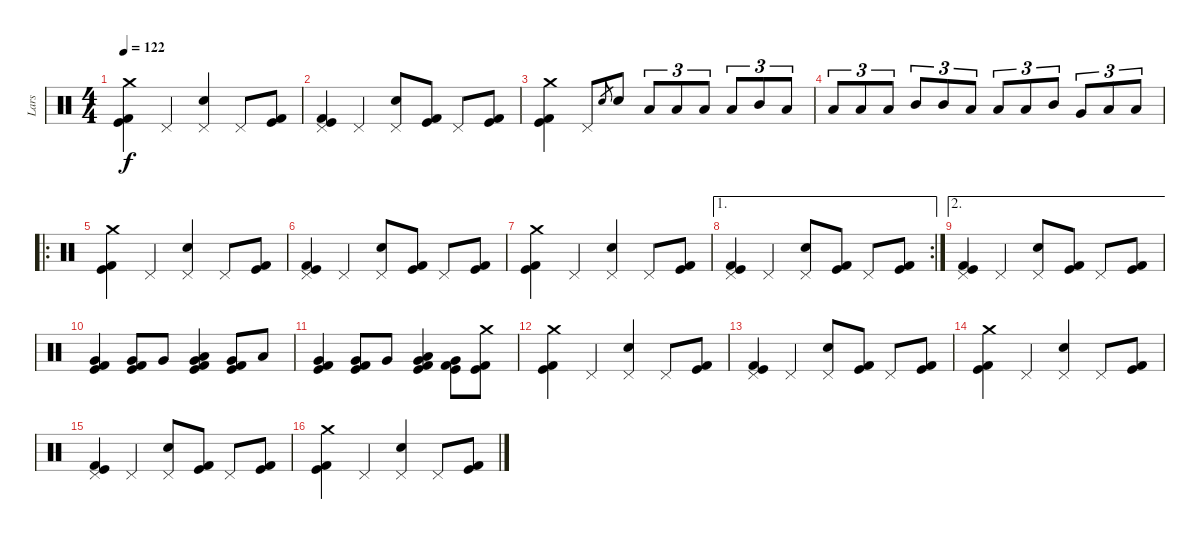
\track ("Lars" "Lars") {instrument percussion}
\staff {score}
\articulation defaults
\ts (4 4)
\tempo 122
\clef neutral
\ks aminor
("Crash medium (hit)" "Kick (hit)" "Kick (hit) 2").4{dy f} "Pedal Hi-Hat (hit)".4 ("Pedal Hi-Hat (hit)" "Electric Snare (hit)").4 "Pedal Hi-Hat (hit)".8 ("Kick (hit)" "Kick (hit) 2").8 |
("Pedal Hi-Hat (hit)" "Kick (hit)" "Kick (hit) 2").4 "Pedal Hi-Hat (hit)".4 ("Pedal Hi-Hat (hit)" "Electric Snare (hit)").8 ("Kick (hit)" "Kick (hit) 2").8 "Pedal Hi-Hat (hit)".8 ("Kick (hit)" "Kick (hit) 2").8 |
("Crash medium (hit)" "Kick (hit)" "Kick (hit) 2").4 "Pedal Hi-Hat (hit)".8 "Electric Snare (hit)".8{gr} "Electric Snare (hit)".8 "Low Tom (hit)".8{tu (3 2)} "Low Tom (hit)".8{tu (3 2)} "Low Tom (hit)".8{tu (3 2)} "Low Tom (hit)".8{tu (3 2)} "Mid Tom (hit)".8{tu (3 2)} "Low Tom (hit)".8{tu (3 2)} |
"Low Tom (hit)".8{tu (3 2)} "Low Tom (hit)".8{tu (3 2)} "Low Tom (hit)".8{tu (3 2)} "Mid Tom (hit)".8{tu (3 2)} "Mid Tom (hit)".8{tu (3 2)} "Low Tom (hit)".8{tu (3 2)} "Low Tom (hit)".8{tu (3 2)} "Low Tom (hit)".8{tu (3 2)} "Mid Tom (hit)".8{tu (3 2)} "Very Low Tom (hit)".8{tu (3 2)} "Low Tom (hit)".8{tu (3 2)} "Low Tom (hit)".8{tu (3 2)} |
\ro
("Crash medium (hit)" "Kick (hit)" "Kick (hit) 2").4 "Pedal Hi-Hat (hit)".4 ("Pedal Hi-Hat (hit)" "Electric Snare (hit)").4 "Pedal Hi-Hat (hit)".8 ("Kick (hit)" "Kick (hit) 2").8 |
("Pedal Hi-Hat (hit)" "Kick (hit)" "Kick (hit) 2").4 "Pedal Hi-Hat (hit)".4 ("Pedal Hi-Hat (hit)" "Electric Snare (hit)").8 ("Kick (hit)" "Kick (hit) 2").8 "Pedal Hi-Hat (hit)".8 ("Kick (hit)" "Kick (hit) 2").8 |
("Crash medium (hit)" "Kick (hit)" "Kick (hit) 2").4 "Pedal Hi-Hat (hit)".4 ("Pedal Hi-Hat (hit)" "Electric Snare (hit)").4 "Pedal Hi-Hat (hit)".8 ("Kick (hit)" "Kick (hit) 2").8 |
\ae 1
\rc 2
("Pedal Hi-Hat (hit)" "Kick (hit)" "Kick (hit) 2").4 "Pedal Hi-Hat (hit)".4 ("Pedal Hi-Hat (hit)" "Electric Snare (hit)").8 ("Kick (hit)" "Kick (hit) 2").8 "Pedal Hi-Hat (hit)".8 ("Kick (hit)" "Kick (hit) 2").8 |
\ae 2
("Pedal Hi-Hat (hit)" "Kick (hit)" "Kick (hit) 2").4 "Pedal Hi-Hat (hit)".4 ("Pedal Hi-Hat (hit)" "Electric Snare (hit)").8 ("Kick (hit)" "Kick (hit) 2").8 "Pedal Hi-Hat (hit)".8 ("Kick (hit)" "Kick (hit) 2").8 |
("Very Low Tom (hit)" "Kick (hit)" "Kick (hit) 2").4 ("Very Low Tom (hit)" "Kick (hit)" "Kick (hit) 2").8 "Very Low Tom (hit)".8 ("Very Low Tom (hit)" "Kick (hit)" "Kick (hit) 2" "Low Tom (hit)").4 ("Very Low Tom (hit)" "Kick (hit)" "Kick (hit) 2").8 "Low Tom (hit)".8 |
("Very Low Tom (hit)" "Kick (hit)" "Kick (hit) 2").4 ("Very Low Tom (hit)" "Kick (hit)" "Kick (hit) 2").8 "Very Low Tom (hit)".8 ("Very Low Tom (hit)" "Kick (hit)" "Kick (hit) 2" "Low Tom (hit)").4 ("Very Low Tom (hit)" "Kick (hit)" "Kick (hit) 2").8 ("Crash medium (hit)" "Kick (hit)" "Kick (hit) 2").8 |
("Crash medium (hit)" "Kick (hit)" "Kick (hit) 2").4 "Pedal Hi-Hat (hit)".4 ("Pedal Hi-Hat (hit)" "Electric Snare (hit)").4 "Pedal Hi-Hat (hit)".8 ("Kick (hit)" "Kick (hit) 2").8 |
("Pedal Hi-Hat (hit)" "Kick (hit)" "Kick (hit) 2").4 "Pedal Hi-Hat (hit)".4 ("Pedal Hi-Hat (hit)" "Electric Snare (hit)").8 ("Kick (hit)" "Kick (hit) 2").8 "Pedal Hi-Hat (hit)".8 ("Kick (hit)" "Kick (hit) 2").8 |
("Crash medium (hit)" "Kick (hit)" "Kick (hit) 2").4 "Pedal Hi-Hat (hit)".4 ("Pedal Hi-Hat (hit)" "Electric Snare (hit)").4 "Pedal Hi-Hat (hit)".8 ("Kick (hit)" "Kick (hit) 2").8 |
("Pedal Hi-Hat (hit)" "Kick (hit)" "Kick (hit) 2").4 "Pedal Hi-Hat (hit)".4 ("Pedal Hi-Hat (hit)" "Electric Snare (hit)").8 ("Kick (hit)" "Kick (hit) 2").8 "Pedal Hi-Hat (hit)".8 ("Kick (hit)" "Kick (hit) 2").8 |
("Crash medium (hit)" "Kick (hit)" "Kick (hit) 2").4 "Pedal Hi-Hat (hit)".4 ("Pedal Hi-Hat (hit)" "Electric Snare (hit)").4 "Pedal Hi-Hat (hit)".8 ("Kick (hit)" "Kick (hit) 2").8
